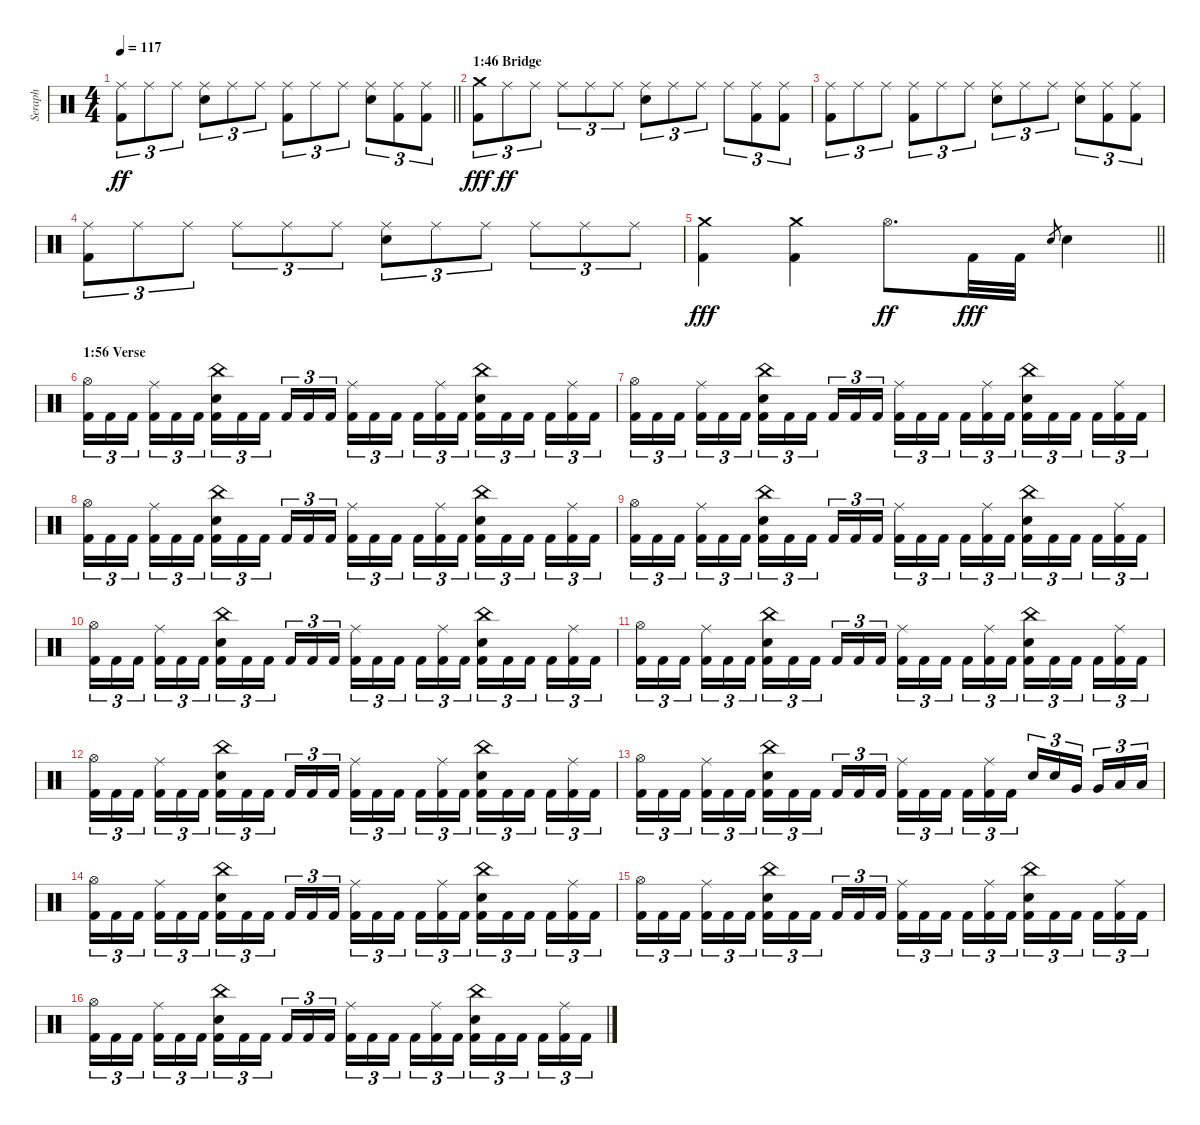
\track ("Seraph" "Seraph") {instrument percussion}
\staff {score}
\articulation defaults
\ts (4 4)
\tempo 117
\clef neutral
\barLineRight lightlight
\ks c
("Kick (hit) 2" "Ride (middle)").8{tu (3 2) dy ff} "Ride (middle)".8{tu (3 2)} "Ride (middle)".8{tu (3 2)} ("Electric Snare (hit)" "Ride (middle)").8{tu (3 2)} "Ride (middle)".8{tu (3 2)} "Ride (middle)".8{tu (3 2)} ("Kick (hit) 2" "Ride (middle)").8{tu (3 2)} "Ride (middle)".8{tu (3 2)} "Ride (middle)".8{tu (3 2)} ("Electric Snare (hit)" "Ride (middle)").8{tu (3 2)} ("Kick (hit) 2" "Ride (middle)").8{tu (3 2)} ("Kick (hit) 2" "Ride (middle)").8{tu (3 2)} |
\section ("" "1:46 Bridge")
("Kick (hit) 2" "Crash medium (hit)").8{tu (3 2) dy fff} "Ride (middle)".8{tu (3 2) dy ff} "Ride (middle)".8{tu (3 2)} "Ride (middle)".8{tu (3 2)} "Ride (middle)".8{tu (3 2)} "Ride (middle)".8{tu (3 2)} ("Electric Snare (hit)" "Ride (middle)").8{tu (3 2)} "Ride (middle)".8{tu (3 2)} "Ride (middle)".8{tu (3 2)} "Ride (middle)".8{tu (3 2)} ("Kick (hit) 2" "Ride (middle)").8{tu (3 2)} ("Kick (hit) 2" "Ride (middle)").8{tu (3 2)} |
("Kick (hit) 2" "Ride (middle)").8{tu (3 2)} "Ride (middle)".8{tu (3 2)} "Ride (middle)".8{tu (3 2)} ("Kick (hit) 2" "Ride (middle)").8{tu (3 2)} "Ride (middle)".8{tu (3 2)} "Ride (middle)".8{tu (3 2)} ("Electric Snare (hit)" "Ride (middle)").8{tu (3 2)} "Ride (middle)".8{tu (3 2)} "Ride (middle)".8{tu (3 2)} ("Electric Snare (hit)" "Ride (middle)").8{tu (3 2)} ("Kick (hit) 2" "Ride (middle)").8{tu (3 2)} ("Kick (hit) 2" "Ride (middle)").8{tu (3 2)} |
("Kick (hit) 2" "Ride (middle)").8{tu (3 2)} "Ride (middle)".8{tu (3 2)} "Ride (middle)".8{tu (3 2)} "Ride (middle)".8{tu (3 2)} "Ride (middle)".8{tu (3 2)} "Ride (middle)".8{tu (3 2)} ("Electric Snare (hit)" "Ride (middle)").8{tu (3 2)} "Ride (middle)".8{tu (3 2)} "Ride (middle)".8{tu (3 2)} "Ride (middle)".8{tu (3 2)} "Ride (middle)".8{tu (3 2)} "Ride (middle)".8{tu (3 2)} |
\barLineRight lightlight
("Kick (hit) 2" "Crash medium (hit)").4{dy fff} ("Kick (hit) 2" "Crash medium (hit)").4 "Hi-Hat (open)".8{d dy ff} "Kick (hit) 2".32{dy fff} "Kick (hit) 2".32 "Electric Snare (hit)".8{gr} "Electric Snare (hit)".4 |
\section ("" "1:56 Verse")
("Hi-Hat (open)" "Kick (hit) 2").16{tu (3 2)} "Kick (hit) 2".16{tu (3 2)} "Kick (hit) 2".16{tu (3 2) beam splitsecondary} ("Ride (middle)" "Kick (hit) 2").16{tu (3 2)} "Kick (hit) 2".16{tu (3 2)} "Kick (hit) 2".16{tu (3 2)} ("China (hit)" "Electric Snare (hit)" "Kick (hit) 2").16{tu (3 2)} "Kick (hit) 2".16{tu (3 2)} "Kick (hit) 2".16{tu (3 2) beam splitsecondary} "Kick (hit) 2".16{tu (3 2)} "Kick (hit) 2".16{tu (3 2)} "Kick (hit) 2".16{tu (3 2)} ("Ride (middle)" "Kick (hit) 2").16{tu (3 2)} "Kick (hit) 2".16{tu (3 2)} "Kick (hit) 2".16{tu (3 2) beam splitsecondary} "Kick (hit) 2".16{tu (3 2)} ("Ride (middle)" "Kick (hit) 2").16{tu (3 2)} "Kick (hit) 2".16{tu (3 2)} ("China (hit)" "Electric Snare (hit)" "Kick (hit) 2").16{tu (3 2)} "Kick (hit) 2".16{tu (3 2)} "Kick (hit) 2".16{tu (3 2) beam splitsecondary} "Kick (hit) 2".16{tu (3 2)} ("Ride (middle)" "Kick (hit) 2").16{tu (3 2)} "Kick (hit) 2".16{tu (3 2)} |
("Hi-Hat (open)" "Kick (hit) 2").16{tu (3 2)} "Kick (hit) 2".16{tu (3 2)} "Kick (hit) 2".16{tu (3 2) beam splitsecondary} ("Ride (middle)" "Kick (hit) 2").16{tu (3 2)} "Kick (hit) 2".16{tu (3 2)} "Kick (hit) 2".16{tu (3 2)} ("China (hit)" "Electric Snare (hit)" "Kick (hit) 2").16{tu (3 2)} "Kick (hit) 2".16{tu (3 2)} "Kick (hit) 2".16{tu (3 2) beam splitsecondary} "Kick (hit) 2".16{tu (3 2)} "Kick (hit) 2".16{tu (3 2)} "Kick (hit) 2".16{tu (3 2)} ("Ride (middle)" "Kick (hit) 2").16{tu (3 2)} "Kick (hit) 2".16{tu (3 2)} "Kick (hit) 2".16{tu (3 2) beam splitsecondary} "Kick (hit) 2".16{tu (3 2)} ("Ride (middle)" "Kick (hit) 2").16{tu (3 2)} "Kick (hit) 2".16{tu (3 2)} ("China (hit)" "Electric Snare (hit)" "Kick (hit) 2").16{tu (3 2)} "Kick (hit) 2".16{tu (3 2)} "Kick (hit) 2".16{tu (3 2) beam splitsecondary} "Kick (hit) 2".16{tu (3 2)} ("Ride (middle)" "Kick (hit) 2").16{tu (3 2)} "Kick (hit) 2".16{tu (3 2)} |
("Hi-Hat (open)" "Kick (hit) 2").16{tu (3 2)} "Kick (hit) 2".16{tu (3 2)} "Kick (hit) 2".16{tu (3 2) beam splitsecondary} ("Ride (middle)" "Kick (hit) 2").16{tu (3 2)} "Kick (hit) 2".16{tu (3 2)} "Kick (hit) 2".16{tu (3 2)} ("China (hit)" "Electric Snare (hit)" "Kick (hit) 2").16{tu (3 2)} "Kick (hit) 2".16{tu (3 2)} "Kick (hit) 2".16{tu (3 2) beam splitsecondary} "Kick (hit) 2".16{tu (3 2)} "Kick (hit) 2".16{tu (3 2)} "Kick (hit) 2".16{tu (3 2)} ("Ride (middle)" "Kick (hit) 2").16{tu (3 2)} "Kick (hit) 2".16{tu (3 2)} "Kick (hit) 2".16{tu (3 2) beam splitsecondary} "Kick (hit) 2".16{tu (3 2)} ("Ride (middle)" "Kick (hit) 2").16{tu (3 2)} "Kick (hit) 2".16{tu (3 2)} ("China (hit)" "Electric Snare (hit)" "Kick (hit) 2").16{tu (3 2)} "Kick (hit) 2".16{tu (3 2)} "Kick (hit) 2".16{tu (3 2) beam splitsecondary} "Kick (hit) 2".16{tu (3 2)} ("Ride (middle)" "Kick (hit) 2").16{tu (3 2)} "Kick (hit) 2".16{tu (3 2)} |
("Hi-Hat (open)" "Kick (hit) 2").16{tu (3 2)} "Kick (hit) 2".16{tu (3 2)} "Kick (hit) 2".16{tu (3 2) beam splitsecondary} ("Ride (middle)" "Kick (hit) 2").16{tu (3 2)} "Kick (hit) 2".16{tu (3 2)} "Kick (hit) 2".16{tu (3 2)} ("China (hit)" "Electric Snare (hit)" "Kick (hit) 2").16{tu (3 2)} "Kick (hit) 2".16{tu (3 2)} "Kick (hit) 2".16{tu (3 2) beam splitsecondary} "Kick (hit) 2".16{tu (3 2)} "Kick (hit) 2".16{tu (3 2)} "Kick (hit) 2".16{tu (3 2)} ("Ride (middle)" "Kick (hit) 2").16{tu (3 2)} "Kick (hit) 2".16{tu (3 2)} "Kick (hit) 2".16{tu (3 2) beam splitsecondary} "Kick (hit) 2".16{tu (3 2)} ("Ride (middle)" "Kick (hit) 2").16{tu (3 2)} "Kick (hit) 2".16{tu (3 2)} ("China (hit)" "Electric Snare (hit)" "Kick (hit) 2").16{tu (3 2)} "Kick (hit) 2".16{tu (3 2)} "Kick (hit) 2".16{tu (3 2) beam splitsecondary} "Kick (hit) 2".16{tu (3 2)} ("Ride (middle)" "Kick (hit) 2").16{tu (3 2)} "Kick (hit) 2".16{tu (3 2)} |
("Hi-Hat (open)" "Kick (hit) 2").16{tu (3 2)} "Kick (hit) 2".16{tu (3 2)} "Kick (hit) 2".16{tu (3 2) beam splitsecondary} ("Ride (middle)" "Kick (hit) 2").16{tu (3 2)} "Kick (hit) 2".16{tu (3 2)} "Kick (hit) 2".16{tu (3 2)} ("China (hit)" "Electric Snare (hit)" "Kick (hit) 2").16{tu (3 2)} "Kick (hit) 2".16{tu (3 2)} "Kick (hit) 2".16{tu (3 2) beam splitsecondary} "Kick (hit) 2".16{tu (3 2)} "Kick (hit) 2".16{tu (3 2)} "Kick (hit) 2".16{tu (3 2)} ("Ride (middle)" "Kick (hit) 2").16{tu (3 2)} "Kick (hit) 2".16{tu (3 2)} "Kick (hit) 2".16{tu (3 2) beam splitsecondary} "Kick (hit) 2".16{tu (3 2)} ("Ride (middle)" "Kick (hit) 2").16{tu (3 2)} "Kick (hit) 2".16{tu (3 2)} ("China (hit)" "Electric Snare (hit)" "Kick (hit) 2").16{tu (3 2)} "Kick (hit) 2".16{tu (3 2)} "Kick (hit) 2".16{tu (3 2) beam splitsecondary} "Kick (hit) 2".16{tu (3 2)} ("Ride (middle)" "Kick (hit) 2").16{tu (3 2)} "Kick (hit) 2".16{tu (3 2)} |
("Hi-Hat (open)" "Kick (hit) 2").16{tu (3 2)} "Kick (hit) 2".16{tu (3 2)} "Kick (hit) 2".16{tu (3 2) beam splitsecondary} ("Ride (middle)" "Kick (hit) 2").16{tu (3 2)} "Kick (hit) 2".16{tu (3 2)} "Kick (hit) 2".16{tu (3 2)} ("China (hit)" "Electric Snare (hit)" "Kick (hit) 2").16{tu (3 2)} "Kick (hit) 2".16{tu (3 2)} "Kick (hit) 2".16{tu (3 2) beam splitsecondary} "Kick (hit) 2".16{tu (3 2)} "Kick (hit) 2".16{tu (3 2)} "Kick (hit) 2".16{tu (3 2)} ("Ride (middle)" "Kick (hit) 2").16{tu (3 2)} "Kick (hit) 2".16{tu (3 2)} "Kick (hit) 2".16{tu (3 2) beam splitsecondary} "Kick (hit) 2".16{tu (3 2)} ("Ride (middle)" "Kick (hit) 2").16{tu (3 2)} "Kick (hit) 2".16{tu (3 2)} ("China (hit)" "Electric Snare (hit)" "Kick (hit) 2").16{tu (3 2)} "Kick (hit) 2".16{tu (3 2)} "Kick (hit) 2".16{tu (3 2) beam splitsecondary} "Kick (hit) 2".16{tu (3 2)} ("Ride (middle)" "Kick (hit) 2").16{tu (3 2)} "Kick (hit) 2".16{tu (3 2)} |
("Hi-Hat (open)" "Kick (hit) 2").16{tu (3 2)} "Kick (hit) 2".16{tu (3 2)} "Kick (hit) 2".16{tu (3 2) beam splitsecondary} ("Ride (middle)" "Kick (hit) 2").16{tu (3 2)} "Kick (hit) 2".16{tu (3 2)} "Kick (hit) 2".16{tu (3 2)} ("China (hit)" "Electric Snare (hit)" "Kick (hit) 2").16{tu (3 2)} "Kick (hit) 2".16{tu (3 2)} "Kick (hit) 2".16{tu (3 2) beam splitsecondary} "Kick (hit) 2".16{tu (3 2)} "Kick (hit) 2".16{tu (3 2)} "Kick (hit) 2".16{tu (3 2)} ("Ride (middle)" "Kick (hit) 2").16{tu (3 2)} "Kick (hit) 2".16{tu (3 2)} "Kick (hit) 2".16{tu (3 2) beam splitsecondary} "Kick (hit) 2".16{tu (3 2)} ("Ride (middle)" "Kick (hit) 2").16{tu (3 2)} "Kick (hit) 2".16{tu (3 2)} ("China (hit)" "Electric Snare (hit)" "Kick (hit) 2").16{tu (3 2)} "Kick (hit) 2".16{tu (3 2)} "Kick (hit) 2".16{tu (3 2) beam splitsecondary} "Kick (hit) 2".16{tu (3 2)} ("Ride (middle)" "Kick (hit) 2").16{tu (3 2)} "Kick (hit) 2".16{tu (3 2)} |
("Hi-Hat (open)" "Kick (hit) 2").16{tu (3 2)} "Kick (hit) 2".16{tu (3 2)} "Kick (hit) 2".16{tu (3 2) beam splitsecondary} ("Ride (middle)" "Kick (hit) 2").16{tu (3 2)} "Kick (hit) 2".16{tu (3 2)} "Kick (hit) 2".16{tu (3 2)} ("China (hit)" "Electric Snare (hit)" "Kick (hit) 2").16{tu (3 2)} "Kick (hit) 2".16{tu (3 2)} "Kick (hit) 2".16{tu (3 2) beam splitsecondary} "Kick (hit) 2".16{tu (3 2)} "Kick (hit) 2".16{tu (3 2)} "Kick (hit) 2".16{tu (3 2)} ("Ride (middle)" "Kick (hit) 2").16{tu (3 2)} "Kick (hit) 2".16{tu (3 2)} "Kick (hit) 2".16{tu (3 2) beam splitsecondary} "Kick (hit) 2".16{tu (3 2)} ("Ride (middle)" "Kick (hit) 2").16{tu (3 2)} "Kick (hit) 2".16{tu (3 2)} "Electric Snare (hit)".16{tu (3 2)} "Electric Snare (hit)".16{tu (3 2)} "Very Low Tom (hit)".16{tu (3 2) beam splitsecondary} "Very Low Tom (hit)".16{tu (3 2)} "Low Floor Tom (hit)".16{tu (3 2)} "Low Floor Tom (hit)".16{tu (3 2)} |
("Hi-Hat (open)" "Kick (hit) 2").16{tu (3 2)} "Kick (hit) 2".16{tu (3 2)} "Kick (hit) 2".16{tu (3 2) beam splitsecondary} ("Ride (middle)" "Kick (hit) 2").16{tu (3 2)} "Kick (hit) 2".16{tu (3 2)} "Kick (hit) 2".16{tu (3 2)} ("China (hit)" "Electric Snare (hit)" "Kick (hit) 2").16{tu (3 2)} "Kick (hit) 2".16{tu (3 2)} "Kick (hit) 2".16{tu (3 2) beam splitsecondary} "Kick (hit) 2".16{tu (3 2)} "Kick (hit) 2".16{tu (3 2)} "Kick (hit) 2".16{tu (3 2)} ("Ride (middle)" "Kick (hit) 2").16{tu (3 2)} "Kick (hit) 2".16{tu (3 2)} "Kick (hit) 2".16{tu (3 2) beam splitsecondary} "Kick (hit) 2".16{tu (3 2)} ("Ride (middle)" "Kick (hit) 2").16{tu (3 2)} "Kick (hit) 2".16{tu (3 2)} ("China (hit)" "Electric Snare (hit)" "Kick (hit) 2").16{tu (3 2)} "Kick (hit) 2".16{tu (3 2)} "Kick (hit) 2".16{tu (3 2) beam splitsecondary} "Kick (hit) 2".16{tu (3 2)} ("Ride (middle)" "Kick (hit) 2").16{tu (3 2)} "Kick (hit) 2".16{tu (3 2)} |
("Hi-Hat (open)" "Kick (hit) 2").16{tu (3 2)} "Kick (hit) 2".16{tu (3 2)} "Kick (hit) 2".16{tu (3 2) beam splitsecondary} ("Ride (middle)" "Kick (hit) 2").16{tu (3 2)} "Kick (hit) 2".16{tu (3 2)} "Kick (hit) 2".16{tu (3 2)} ("China (hit)" "Electric Snare (hit)" "Kick (hit) 2").16{tu (3 2)} "Kick (hit) 2".16{tu (3 2)} "Kick (hit) 2".16{tu (3 2) beam splitsecondary} "Kick (hit) 2".16{tu (3 2)} "Kick (hit) 2".16{tu (3 2)} "Kick (hit) 2".16{tu (3 2)} ("Ride (middle)" "Kick (hit) 2").16{tu (3 2)} "Kick (hit) 2".16{tu (3 2)} "Kick (hit) 2".16{tu (3 2) beam splitsecondary} "Kick (hit) 2".16{tu (3 2)} ("Ride (middle)" "Kick (hit) 2").16{tu (3 2)} "Kick (hit) 2".16{tu (3 2)} ("China (hit)" "Electric Snare (hit)" "Kick (hit) 2").16{tu (3 2)} "Kick (hit) 2".16{tu (3 2)} "Kick (hit) 2".16{tu (3 2) beam splitsecondary} "Kick (hit) 2".16{tu (3 2)} ("Ride (middle)" "Kick (hit) 2").16{tu (3 2)} "Kick (hit) 2".16{tu (3 2)} |
("Hi-Hat (open)" "Kick (hit) 2").16{tu (3 2)} "Kick (hit) 2".16{tu (3 2)} "Kick (hit) 2".16{tu (3 2) beam splitsecondary} ("Ride (middle)" "Kick (hit) 2").16{tu (3 2)} "Kick (hit) 2".16{tu (3 2)} "Kick (hit) 2".16{tu (3 2)} ("China (hit)" "Electric Snare (hit)" "Kick (hit) 2").16{tu (3 2)} "Kick (hit) 2".16{tu (3 2)} "Kick (hit) 2".16{tu (3 2) beam splitsecondary} "Kick (hit) 2".16{tu (3 2)} "Kick (hit) 2".16{tu (3 2)} "Kick (hit) 2".16{tu (3 2)} ("Ride (middle)" "Kick (hit) 2").16{tu (3 2)} "Kick (hit) 2".16{tu (3 2)} "Kick (hit) 2".16{tu (3 2) beam splitsecondary} "Kick (hit) 2".16{tu (3 2)} ("Ride (middle)" "Kick (hit) 2").16{tu (3 2)} "Kick (hit) 2".16{tu (3 2)} ("China (hit)" "Electric Snare (hit)" "Kick (hit) 2").16{tu (3 2)} "Kick (hit) 2".16{tu (3 2)} "Kick (hit) 2".16{tu (3 2) beam splitsecondary} "Kick (hit) 2".16{tu (3 2)} ("Ride (middle)" "Kick (hit) 2").16{tu (3 2)} "Kick (hit) 2".16{tu (3 2)}
